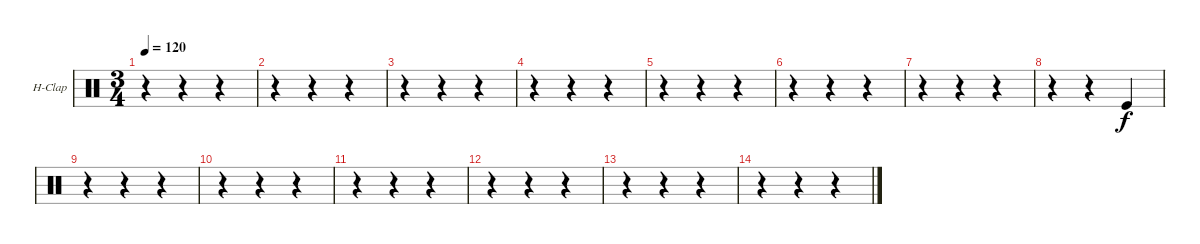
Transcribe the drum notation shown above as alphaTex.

\bracketExtendMode groupsimilarinstruments
\firstSystemTrackNameOrientation horizontal
\otherSystemsTrackNameOrientation horizontal
\track ("Hand Clap" "H-Clap") {instrument percussion}
\staff {score}
\articulation defaults
\ts (3 4)
\tempo 120
\clef neutral
\ks c
r.4{dy f} r.4 r.4 |
r.4 r.4 r.4 |
r.4 r.4 r.4 |
r.4 r.4 r.4 |
r.4 r.4 r.4 |
r.4 r.4 r.4 |
r.4 r.4 r.4 |
r.4 r.4 "Kick (hit)".4 |
r.4 r.4 r.4 |
r.4 r.4 r.4 |
r.4 r.4 r.4 |
r.4 r.4 r.4 |
r.4 r.4 r.4 |
r.4 r.4 r.4
